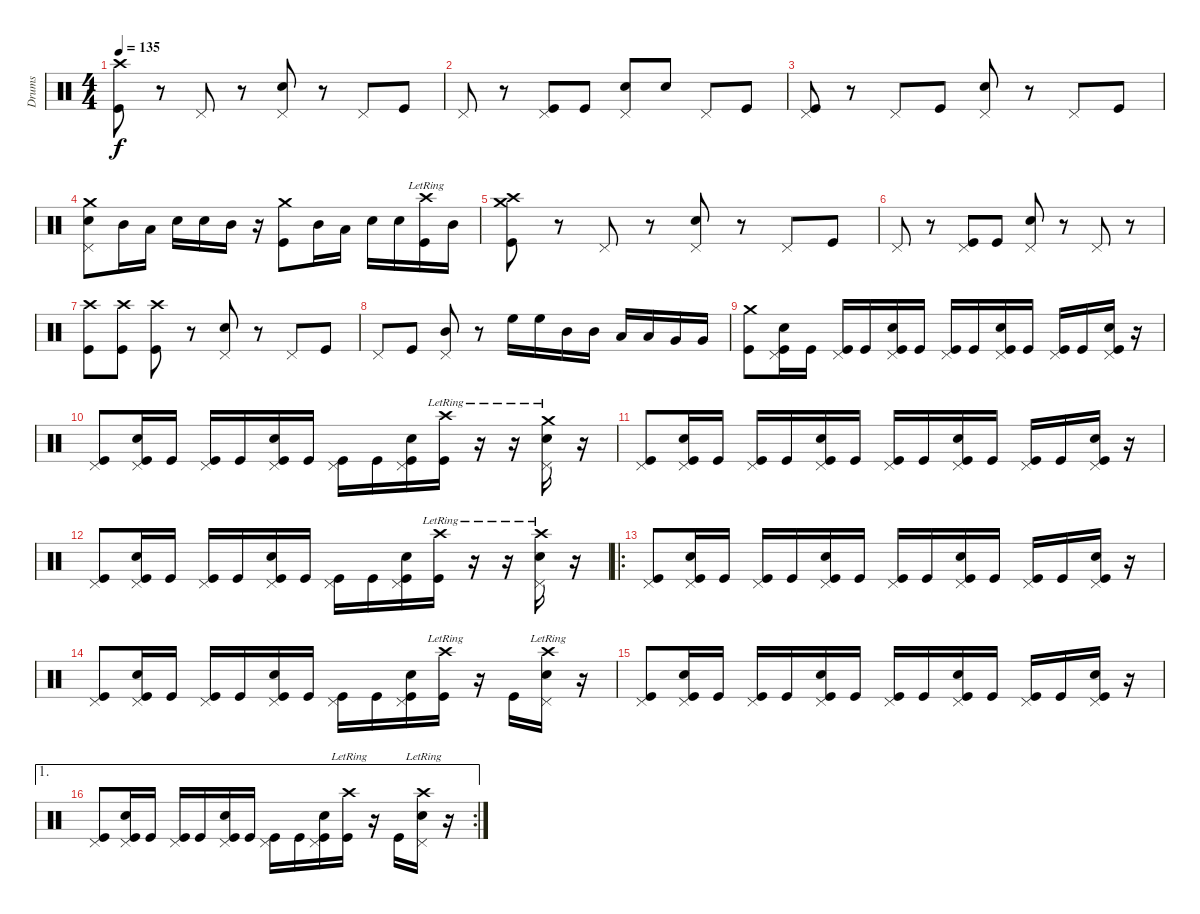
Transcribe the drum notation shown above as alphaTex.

\track ("Drums" "Drums") {instrument percussion}
\staff {score}
\articulation defaults
\ts (4 4)
\tempo 135
\clef neutral
\ks c
("Crash high (hit)" "Kick (hit)").8{dy f} r.8 "Pedal Hi-Hat (hit)".8 r.8 ("Pedal Hi-Hat (hit)" "Snare (hit) 2").8 r.8 "Pedal Hi-Hat (hit)".8 "Kick (hit)".8 |
"Pedal Hi-Hat (hit)".8 r.8 ("Pedal Hi-Hat (hit)" "Kick (hit)").8 "Kick (hit)".8 ("Pedal Hi-Hat (hit)" "Snare (hit) 2").8 "Snare (hit) 2".8 "Pedal Hi-Hat (hit)".8 "Kick (hit)".8 |
("Pedal Hi-Hat (hit)" "Kick (hit)").8 r.8 "Pedal Hi-Hat (hit)".8 "Kick (hit)".8 ("Pedal Hi-Hat (hit)" "Snare (hit) 2").8 r.8 "Pedal Hi-Hat (hit)".8 "Kick (hit)".8 |
("Crash medium (hit)" "Pedal Hi-Hat (hit)" "Snare (hit) 2").8 "Mid Tom (hit)".16 "Low Tom (hit)".16 "Snare (hit) 2".16 "Snare (hit) 2".16 "Mid Tom (hit)".16 r.16 ("Crash medium (hit)" "Kick (hit)").8 "Mid Tom (hit)".16 "Low Tom (hit)".16 "Snare (hit) 2".16 "Snare (hit) 2".16 ("Crash high (hit)"{lr} "Kick (hit)").16 "Mid Tom (hit)".16 |
("Crash high (hit)" "Crash medium (hit)" "Kick (hit)").8 r.8 "Pedal Hi-Hat (hit)".8 r.8 ("Pedal Hi-Hat (hit)" "Snare (hit) 2").8 r.8 "Pedal Hi-Hat (hit)".8 "Kick (hit)".8 |
"Pedal Hi-Hat (hit)".8 r.8 ("Pedal Hi-Hat (hit)" "Kick (hit)").8 "Kick (hit)".8 ("Pedal Hi-Hat (hit)" "Snare (hit) 2").8 r.8 "Pedal Hi-Hat (hit)".8 r.8 |
("Crash high (hit)" "Kick (hit)").8 ("Crash high (hit)" "Kick (hit)").8 ("Crash high (hit)" "Kick (hit)").8 r.8 ("Pedal Hi-Hat (hit)" "Snare (hit) 2").8 r.8 "Pedal Hi-Hat (hit)".8 "Kick (hit)".8 |
"Pedal Hi-Hat (hit)".8 "Kick (hit)".8 ("Pedal Hi-Hat (hit)" "Mid Tom (hit)").8 r.8 "High Floor Tom (hit)".16 "High Floor Tom (hit)".16 "Mid Tom (hit)".16 "Mid Tom (hit)".16 "Low Tom (hit)".16 "Low Tom (hit)".16 "Very Low Tom (hit)".16 "Very Low Tom (hit)".16 |
("Crash medium (hit)" "Kick (hit)").8 ("Pedal Hi-Hat (hit)" "Snare (hit) 2" "Kick (hit)").16 "Kick (hit)".16 ("Pedal Hi-Hat (hit)" "Kick (hit)").16 "Kick (hit)".16 ("Pedal Hi-Hat (hit)" "Snare (hit) 2" "Kick (hit)").16 "Kick (hit)".16 ("Pedal Hi-Hat (hit)" "Kick (hit)").16 "Kick (hit)".16 ("Pedal Hi-Hat (hit)" "Snare (hit) 2" "Kick (hit)").16 "Kick (hit)".16 ("Pedal Hi-Hat (hit)" "Kick (hit)").16 "Kick (hit)".16 ("Pedal Hi-Hat (hit)" "Snare (hit) 2" "Kick (hit)").16 r.16 |
("Pedal Hi-Hat (hit)" "Kick (hit)").8 ("Pedal Hi-Hat (hit)" "Snare (hit) 2" "Kick (hit)").16 "Kick (hit)".16 ("Pedal Hi-Hat (hit)" "Kick (hit)").16 "Kick (hit)".16 ("Pedal Hi-Hat (hit)" "Snare (hit) 2" "Kick (hit)").16 "Kick (hit)".16 ("Pedal Hi-Hat (hit)" "Kick (hit)").16 "Kick (hit)".16 ("Pedal Hi-Hat (hit)" "Snare (hit) 2" "Kick (hit)").16 ("Crash high (hit)"{lr} "Kick (hit)").16 r.16 r.16 ("Crash medium (hit)"{lr} "Pedal Hi-Hat (hit)" "Snare (hit) 2").16 r.16 |
("Pedal Hi-Hat (hit)" "Kick (hit)").8 ("Pedal Hi-Hat (hit)" "Snare (hit) 2" "Kick (hit)").16 "Kick (hit)".16 ("Pedal Hi-Hat (hit)" "Kick (hit)").16 "Kick (hit)".16 ("Pedal Hi-Hat (hit)" "Snare (hit) 2" "Kick (hit)").16 "Kick (hit)".16 ("Pedal Hi-Hat (hit)" "Kick (hit)").16 "Kick (hit)".16 ("Pedal Hi-Hat (hit)" "Snare (hit) 2" "Kick (hit)").16 "Kick (hit)".16 ("Pedal Hi-Hat (hit)" "Kick (hit)").16 "Kick (hit)".16 ("Pedal Hi-Hat (hit)" "Snare (hit) 2" "Kick (hit)").16 r.16 |
("Pedal Hi-Hat (hit)" "Kick (hit)").8 ("Pedal Hi-Hat (hit)" "Snare (hit) 2" "Kick (hit)").16 "Kick (hit)".16 ("Pedal Hi-Hat (hit)" "Kick (hit)").16 "Kick (hit)".16 ("Pedal Hi-Hat (hit)" "Snare (hit) 2" "Kick (hit)").16 "Kick (hit)".16 ("Pedal Hi-Hat (hit)" "Kick (hit)").16 "Kick (hit)".16 ("Pedal Hi-Hat (hit)" "Snare (hit) 2" "Kick (hit)").16 ("Crash high (hit)"{lr} "Kick (hit)").16 r.16 r.16 ("Crash high (hit)"{lr} "Pedal Hi-Hat (hit)" "Snare (hit) 2").16 r.16 |
\ro
("Pedal Hi-Hat (hit)" "Kick (hit)").8 ("Pedal Hi-Hat (hit)" "Snare (hit) 2" "Kick (hit)").16 "Kick (hit)".16 ("Pedal Hi-Hat (hit)" "Kick (hit)").16 "Kick (hit)".16 ("Pedal Hi-Hat (hit)" "Snare (hit) 2" "Kick (hit)").16 "Kick (hit)".16 ("Pedal Hi-Hat (hit)" "Kick (hit)").16 "Kick (hit)".16 ("Pedal Hi-Hat (hit)" "Snare (hit) 2" "Kick (hit)").16 "Kick (hit)".16 ("Pedal Hi-Hat (hit)" "Kick (hit)").16 "Kick (hit)".16 ("Pedal Hi-Hat (hit)" "Snare (hit) 2" "Kick (hit)").16 r.16 |
("Pedal Hi-Hat (hit)" "Kick (hit)").8 ("Pedal Hi-Hat (hit)" "Snare (hit) 2" "Kick (hit)").16 "Kick (hit)".16 ("Pedal Hi-Hat (hit)" "Kick (hit)").16 "Kick (hit)".16 ("Pedal Hi-Hat (hit)" "Snare (hit) 2" "Kick (hit)").16 "Kick (hit)".16 ("Pedal Hi-Hat (hit)" "Kick (hit)").16 "Kick (hit)".16 ("Pedal Hi-Hat (hit)" "Snare (hit) 2" "Kick (hit)").16 ("Crash high (hit)"{lr} "Kick (hit)").16 r.16 "Kick (hit)".16 ("Crash high (hit)"{lr} "Pedal Hi-Hat (hit)" "Snare (hit) 2").16 r.16 |
("Pedal Hi-Hat (hit)" "Kick (hit)").8 ("Pedal Hi-Hat (hit)" "Snare (hit) 2" "Kick (hit)").16 "Kick (hit)".16 ("Pedal Hi-Hat (hit)" "Kick (hit)").16 "Kick (hit)".16 ("Pedal Hi-Hat (hit)" "Snare (hit) 2" "Kick (hit)").16 "Kick (hit)".16 ("Pedal Hi-Hat (hit)" "Kick (hit)").16 "Kick (hit)".16 ("Pedal Hi-Hat (hit)" "Snare (hit) 2" "Kick (hit)").16 "Kick (hit)".16 ("Pedal Hi-Hat (hit)" "Kick (hit)").16 "Kick (hit)".16 ("Pedal Hi-Hat (hit)" "Snare (hit) 2" "Kick (hit)").16 r.16 |
\ae 1
\rc 2
("Pedal Hi-Hat (hit)" "Kick (hit)").8 ("Pedal Hi-Hat (hit)" "Snare (hit) 2" "Kick (hit)").16 "Kick (hit)".16 ("Pedal Hi-Hat (hit)" "Kick (hit)").16 "Kick (hit)".16 ("Pedal Hi-Hat (hit)" "Snare (hit) 2" "Kick (hit)").16 "Kick (hit)".16 ("Pedal Hi-Hat (hit)" "Kick (hit)").16 "Kick (hit)".16 ("Pedal Hi-Hat (hit)" "Snare (hit) 2" "Kick (hit)").16 ("Crash high (hit)"{lr} "Kick (hit)").16 r.16 "Kick (hit)".16 ("Crash high (hit)"{lr} "Pedal Hi-Hat (hit)" "Snare (hit) 2").16 r.16
